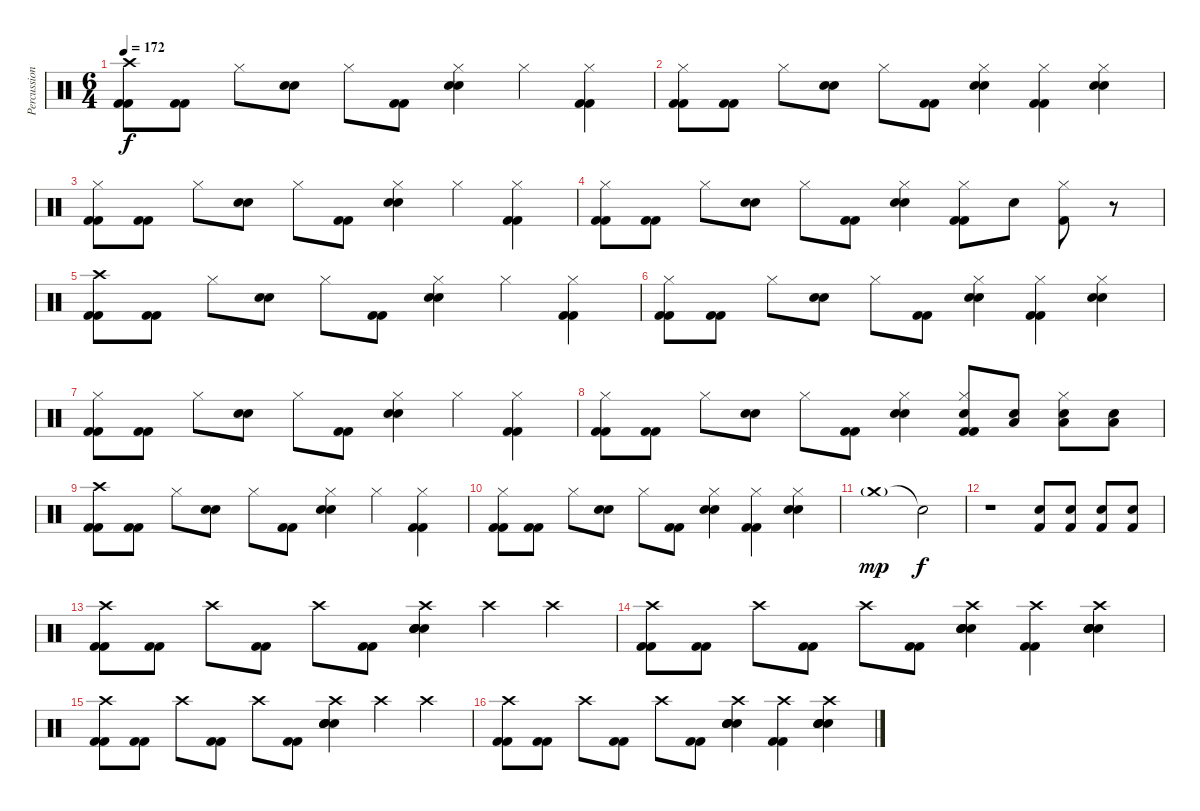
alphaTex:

\track ("Percussion" "Percussion") {instrument percussion}
\staff {score}
\articulation defaults
\ts (6 4)
\tempo 172
\clef neutral
\ks c
("Crash high (hit)" "Kick (hit) 2" "Kick (hit) 2").8{dy f volume 16} ("Kick (hit) 2" "Kick (hit) 2").8 "Hi-Hat (closed)".8 ("Electric Snare (hit)" "Electric Snare (hit)").8 "Hi-Hat (closed)".8 ("Kick (hit) 2" "Kick (hit) 2").8 ("Hi-Hat (closed)" "Electric Snare (hit)" "Electric Snare (hit)").4 "Hi-Hat (closed)".4 ("Hi-Hat (closed)" "Kick (hit) 2" "Kick (hit) 2").4 |
("Hi-Hat (closed)" "Kick (hit) 2" "Kick (hit) 2").8 ("Kick (hit) 2" "Kick (hit) 2").8 "Hi-Hat (closed)".8 ("Electric Snare (hit)" "Electric Snare (hit)").8 "Hi-Hat (closed)".8 ("Kick (hit) 2" "Kick (hit) 2").8 ("Hi-Hat (closed)" "Electric Snare (hit)" "Electric Snare (hit)").4 ("Hi-Hat (closed)" "Kick (hit) 2" "Kick (hit) 2").4 ("Hi-Hat (closed)" "Electric Snare (hit)" "Electric Snare (hit)").4 |
("Hi-Hat (closed)" "Kick (hit) 2" "Kick (hit) 2").8 ("Kick (hit) 2" "Kick (hit) 2").8 "Hi-Hat (closed)".8 ("Electric Snare (hit)" "Electric Snare (hit)").8 "Hi-Hat (closed)".8 ("Kick (hit) 2" "Kick (hit) 2").8 ("Hi-Hat (closed)" "Electric Snare (hit)" "Electric Snare (hit)").4 "Hi-Hat (closed)".4 ("Hi-Hat (closed)" "Kick (hit) 2" "Kick (hit) 2").4 |
("Hi-Hat (closed)" "Kick (hit) 2" "Kick (hit) 2").8 ("Kick (hit) 2" "Kick (hit) 2").8 "Hi-Hat (closed)".8 ("Electric Snare (hit)" "Electric Snare (hit)").8 "Hi-Hat (closed)".8 ("Kick (hit) 2" "Kick (hit) 2").8 ("Hi-Hat (closed)" "Electric Snare (hit)" "Electric Snare (hit)").4 ("Hi-Hat (closed)" "Kick (hit) 2" "Kick (hit) 2").8 "Electric Snare (hit)".8 ("Hi-Hat (closed)" "Kick (hit) 2").8 r.8 |
("Crash high (hit)" "Kick (hit) 2" "Kick (hit) 2").8 ("Kick (hit) 2" "Kick (hit) 2").8 "Hi-Hat (closed)".8 ("Electric Snare (hit)" "Electric Snare (hit)").8 "Hi-Hat (closed)".8 ("Kick (hit) 2" "Kick (hit) 2").8 ("Hi-Hat (closed)" "Electric Snare (hit)" "Electric Snare (hit)").4 "Hi-Hat (closed)".4 ("Hi-Hat (closed)" "Kick (hit) 2" "Kick (hit) 2").4 |
("Hi-Hat (closed)" "Kick (hit) 2" "Kick (hit) 2").8 ("Kick (hit) 2" "Kick (hit) 2").8 "Hi-Hat (closed)".8 ("Electric Snare (hit)" "Electric Snare (hit)").8 "Hi-Hat (closed)".8 ("Kick (hit) 2" "Kick (hit) 2").8 ("Hi-Hat (closed)" "Electric Snare (hit)" "Electric Snare (hit)").4 ("Hi-Hat (closed)" "Kick (hit) 2" "Kick (hit) 2").4 ("Hi-Hat (closed)" "Electric Snare (hit)" "Electric Snare (hit)").4 |
("Hi-Hat (closed)" "Kick (hit) 2" "Kick (hit) 2").8 ("Kick (hit) 2" "Kick (hit) 2").8 "Hi-Hat (closed)".8 ("Electric Snare (hit)" "Electric Snare (hit)").8 "Hi-Hat (closed)".8 ("Kick (hit) 2" "Kick (hit) 2").8 ("Hi-Hat (closed)" "Electric Snare (hit)" "Electric Snare (hit)").4 "Hi-Hat (closed)".4 ("Hi-Hat (closed)" "Kick (hit) 2" "Kick (hit) 2").4 |
("Hi-Hat (closed)" "Kick (hit) 2" "Kick (hit) 2").8 ("Kick (hit) 2" "Kick (hit) 2").8 "Hi-Hat (closed)".8 ("Electric Snare (hit)" "Electric Snare (hit)").8 "Hi-Hat (closed)".8 ("Kick (hit) 2" "Kick (hit) 2").8 ("Hi-Hat (closed)" "Electric Snare (hit)" "Electric Snare (hit)").4 ("Hi-Hat (closed)" "Electric Snare (hit)" "Kick (hit) 2" "Kick (hit) 2").8 ("Electric Snare (hit)" "Low Tom (hit)").8 ("Hi-Hat (closed)" "Electric Snare (hit)" "Low Tom (hit)").8 ("Electric Snare (hit)" "Low Tom (hit)").8 |
("Crash high (hit)" "Kick (hit) 2" "Kick (hit) 2").8{volume 16} ("Kick (hit) 2" "Kick (hit) 2").8 "Hi-Hat (closed)".8 ("Electric Snare (hit)" "Electric Snare (hit)").8 "Hi-Hat (closed)".8 ("Kick (hit) 2" "Kick (hit) 2").8 ("Hi-Hat (closed)" "Electric Snare (hit)" "Electric Snare (hit)").4 "Hi-Hat (closed)".4 ("Hi-Hat (closed)" "Kick (hit) 2" "Kick (hit) 2").4 |
("Hi-Hat (closed)" "Kick (hit) 2" "Kick (hit) 2").8 ("Kick (hit) 2" "Kick (hit) 2").8 "Hi-Hat (closed)".8 ("Electric Snare (hit)" "Electric Snare (hit)").8 "Hi-Hat (closed)".8 ("Kick (hit) 2" "Kick (hit) 2").8 ("Hi-Hat (closed)" "Electric Snare (hit)" "Electric Snare (hit)").4 ("Hi-Hat (closed)" "Kick (hit) 2" "Kick (hit) 2").4 ("Hi-Hat (closed)" "Electric Snare (hit)" "Electric Snare (hit)").4 |
"Crash medium (hit)"{g}.1{dy mp} "Snare (hit)"{t}.2{dy f} |
r.1 ("Electric Snare (hit)" "Kick (hit) 2").8 ("Electric Snare (hit)" "Kick (hit) 2").8 ("Electric Snare (hit)" "Kick (hit) 2").8 ("Electric Snare (hit)" "Kick (hit) 2").8 |
("Crash high (hit)" "Kick (hit) 2" "Kick (hit) 2").8{volume 16} ("Kick (hit) 2" "Kick (hit) 2").8 "Crash high (hit)".8 ("Kick (hit) 2" "Kick (hit) 2").8 "Crash high (hit)".8 ("Kick (hit) 2" "Kick (hit) 2").8 ("Crash high (hit)" "Electric Snare (hit)" "Electric Snare (hit)" "Electric Snare (hit)" "Electric Snare (hit)").4 "Crash high (hit)".4 "Crash high (hit)".4 |
("Crash high (hit)" "Kick (hit) 2" "Kick (hit) 2").8 ("Kick (hit) 2" "Kick (hit) 2").8 "Crash high (hit)".8 ("Kick (hit) 2" "Kick (hit) 2").8 "Crash high (hit)".8 ("Kick (hit) 2" "Kick (hit) 2").8 ("Crash high (hit)" "Electric Snare (hit)" "Electric Snare (hit)" "Electric Snare (hit)" "Electric Snare (hit)").4 ("Crash high (hit)" "Kick (hit) 2" "Kick (hit) 2").4 ("Crash high (hit)" "Electric Snare (hit)" "Electric Snare (hit)" "Electric Snare (hit)" "Electric Snare (hit)").4 |
("Crash high (hit)" "Kick (hit) 2" "Kick (hit) 2").8{volume 16} ("Kick (hit) 2" "Kick (hit) 2").8 "Crash high (hit)".8 ("Kick (hit) 2" "Kick (hit) 2").8 "Crash high (hit)".8 ("Kick (hit) 2" "Kick (hit) 2").8 ("Crash high (hit)" "Electric Snare (hit)" "Electric Snare (hit)" "Electric Snare (hit)" "Electric Snare (hit)").4 "Crash high (hit)".4 "Crash high (hit)".4 |
("Crash high (hit)" "Kick (hit) 2" "Kick (hit) 2").8 ("Kick (hit) 2" "Kick (hit) 2").8 "Crash high (hit)".8 ("Kick (hit) 2" "Kick (hit) 2").8 "Crash high (hit)".8 ("Kick (hit) 2" "Kick (hit) 2").8 ("Crash high (hit)" "Electric Snare (hit)" "Electric Snare (hit)" "Electric Snare (hit)" "Electric Snare (hit)").4 ("Crash high (hit)" "Kick (hit) 2" "Kick (hit) 2").4 ("Crash high (hit)" "Electric Snare (hit)" "Electric Snare (hit)" "Electric Snare (hit)" "Electric Snare (hit)").4
